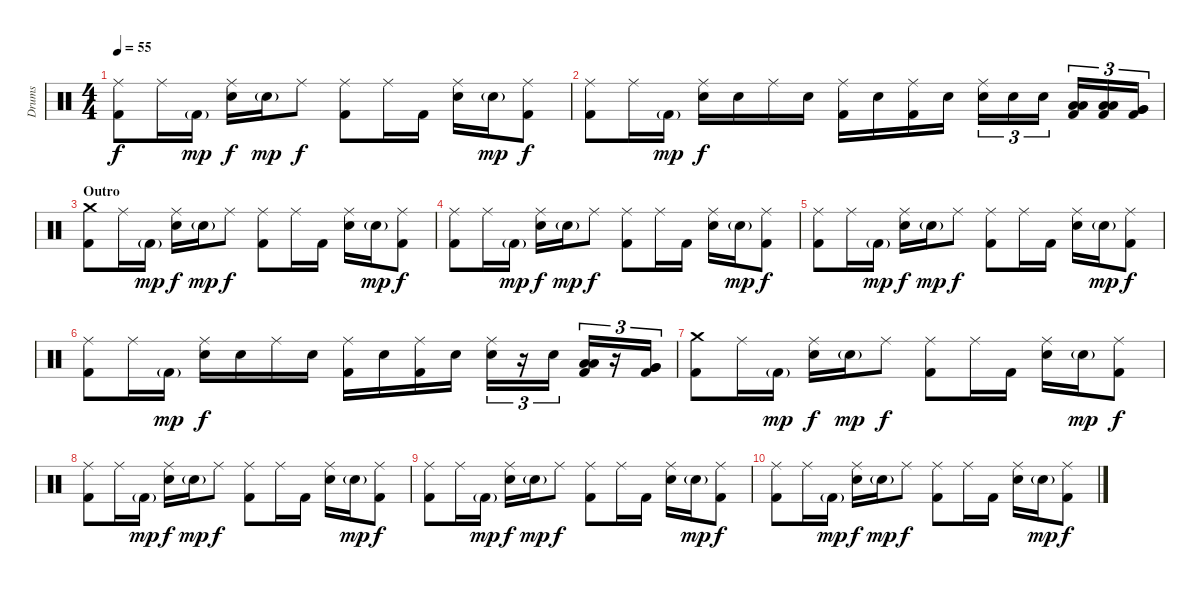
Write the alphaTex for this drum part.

\track ("Drums" "Drums") {instrument percussion}
\staff {score}
\articulation defaults
\ts (4 4)
\tempo 55
\clef neutral
\ks c
("Ride (middle)" "Kick (hit) 2").8{dy f} "Ride (middle)".16 "Kick (hit) 2"{g}.16{dy mp} ("Ride (middle)" "Electric Snare (hit)").16{dy f} "Electric Snare (hit)"{g}.16{dy mp} "Ride (middle)".8{dy f} ("Ride (middle)" "Kick (hit) 2").8 "Ride (middle)".16 "Kick (hit) 2".16 ("Ride (middle)" "Electric Snare (hit)").16 "Electric Snare (hit)"{g}.16{dy mp} ("Ride (middle)" "Kick (hit) 2").8{dy f} |
("Ride (middle)" "Kick (hit) 2").8 "Ride (middle)".16 "Kick (hit) 2"{g}.16{dy mp} ("Ride (middle)" "Electric Snare (hit)").16{dy f} "Electric Snare (hit)".16 "Ride (middle)".16 "Electric Snare (hit)".16 ("Ride (middle)" "Kick (hit) 2").16 "Electric Snare (hit)".16 ("Ride (middle)" "Kick (hit) 2").16 "Electric Snare (hit)".16 ("Ride (middle)" "Electric Snare (hit)").16{tu (3 2)} "Electric Snare (hit)".16{tu (3 2)} "Electric Snare (hit)".16{tu (3 2)} ("Low Tom (hit)" "Low Tom (hit)" "Kick (hit) 2").16{tu (3 2)} ("Low Tom (hit)" "Low Tom (hit)" "Kick (hit) 2").16{tu (3 2)} ("Very Low Tom (hit)" "Very Low Tom (hit)" "Kick (hit) 2").16{tu (3 2)} |
\section ("" "Outro")
("Crash medium (hit)" "Kick (hit) 2").8 "Ride (middle)".16 "Kick (hit) 2"{g}.16{dy mp} ("Ride (middle)" "Electric Snare (hit)").16{dy f} "Electric Snare (hit)"{g}.16{dy mp} "Ride (middle)".8{dy f} ("Ride (middle)" "Kick (hit) 2").8 "Ride (middle)".16 "Kick (hit) 2".16 ("Ride (middle)" "Electric Snare (hit)").16 "Electric Snare (hit)"{g}.16{dy mp} ("Ride (middle)" "Kick (hit) 2").8{dy f} |
("Ride (middle)" "Kick (hit) 2").8 "Ride (middle)".16 "Kick (hit) 2"{g}.16{dy mp} ("Ride (middle)" "Electric Snare (hit)").16{dy f} "Electric Snare (hit)"{g}.16{dy mp} "Ride (middle)".8{dy f} ("Ride (middle)" "Kick (hit) 2").8 "Ride (middle)".16 "Kick (hit) 2".16 ("Ride (middle)" "Electric Snare (hit)").16 "Electric Snare (hit)"{g}.16{dy mp} ("Ride (middle)" "Kick (hit) 2").8{dy f} |
("Ride (middle)" "Kick (hit) 2").8{volume 8} "Ride (middle)".16 "Kick (hit) 2"{g}.16{dy mp} ("Ride (middle)" "Electric Snare (hit)").16{dy f} "Electric Snare (hit)"{g}.16{dy mp} "Ride (middle)".8{dy f} ("Ride (middle)" "Kick (hit) 2").8 "Ride (middle)".16 "Kick (hit) 2".16 ("Ride (middle)" "Electric Snare (hit)").16 "Electric Snare (hit)"{g}.16{dy mp} ("Ride (middle)" "Kick (hit) 2").8{dy f} |
("Ride (middle)" "Kick (hit) 2").8 "Ride (middle)".16 "Kick (hit) 2"{g}.16{dy mp} ("Ride (middle)" "Electric Snare (hit)").16{dy f} "Electric Snare (hit)".16 "Ride (middle)".16 "Electric Snare (hit)".16 ("Ride (middle)" "Kick (hit) 2").16 "Electric Snare (hit)".16 ("Ride (middle)" "Kick (hit) 2").16 "Electric Snare (hit)".16 ("Ride (middle)" "Electric Snare (hit)").16{tu (3 2)} r.16{tu (3 2)} "Electric Snare (hit)".16{tu (3 2)} ("Low Tom (hit)" "Low Tom (hit)" "Kick (hit) 2").16{tu (3 2)} r.16{tu (3 2)} ("Very Low Tom (hit)" "Very Low Tom (hit)" "Kick (hit) 2").16{tu (3 2)} |
("Crash medium (hit)" "Kick (hit) 2").8{volume 0} "Ride (middle)".16 "Kick (hit) 2"{g}.16{dy mp} ("Ride (middle)" "Electric Snare (hit)").16{dy f} "Electric Snare (hit)"{g}.16{dy mp} "Ride (middle)".8{dy f} ("Ride (middle)" "Kick (hit) 2").8 "Ride (middle)".16 "Kick (hit) 2".16 ("Ride (middle)" "Electric Snare (hit)").16 "Electric Snare (hit)"{g}.16{dy mp} ("Ride (middle)" "Kick (hit) 2").8{dy f} |
("Ride (middle)" "Kick (hit) 2").8 "Ride (middle)".16 "Kick (hit) 2"{g}.16{dy mp} ("Ride (middle)" "Electric Snare (hit)").16{dy f} "Electric Snare (hit)"{g}.16{dy mp} "Ride (middle)".8{dy f} ("Ride (middle)" "Kick (hit) 2").8 "Ride (middle)".16 "Kick (hit) 2".16 ("Ride (middle)" "Electric Snare (hit)").16 "Electric Snare (hit)"{g}.16{dy mp} ("Ride (middle)" "Kick (hit) 2").8{dy f} |
("Ride (middle)" "Kick (hit) 2").8 "Ride (middle)".16 "Kick (hit) 2"{g}.16{dy mp} ("Ride (middle)" "Electric Snare (hit)").16{dy f} "Electric Snare (hit)"{g}.16{dy mp} "Ride (middle)".8{dy f} ("Ride (middle)" "Kick (hit) 2").8 "Ride (middle)".16 "Kick (hit) 2".16 ("Ride (middle)" "Electric Snare (hit)").16 "Electric Snare (hit)"{g}.16{dy mp} ("Ride (middle)" "Kick (hit) 2").8{dy f} |
("Ride (middle)" "Kick (hit) 2").8 "Ride (middle)".16 "Kick (hit) 2"{g}.16{dy mp} ("Ride (middle)" "Electric Snare (hit)").16{dy f} "Electric Snare (hit)"{g}.16{dy mp} "Ride (middle)".8{dy f} ("Ride (middle)" "Kick (hit) 2").8 "Ride (middle)".16 "Kick (hit) 2".16 ("Ride (middle)" "Electric Snare (hit)").16 "Electric Snare (hit)"{g}.16{dy mp} ("Ride (middle)" "Kick (hit) 2").8{dy f}
